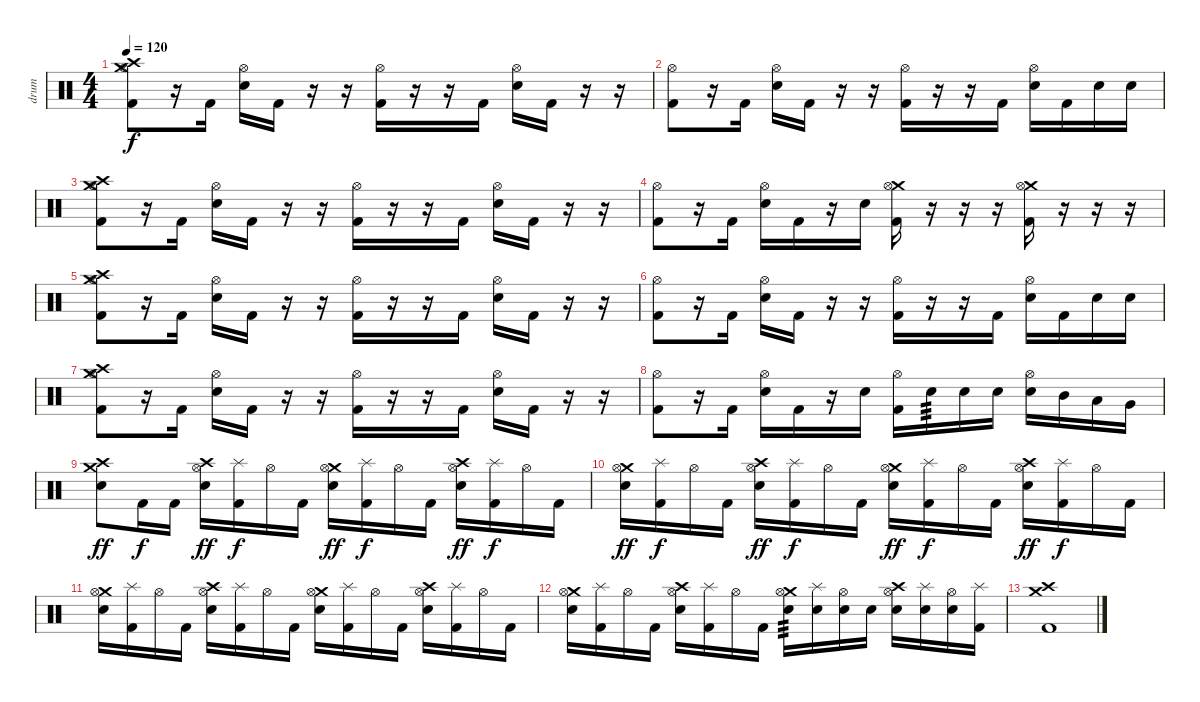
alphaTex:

\track ("drum" "drum") {instrument percussion}
\staff {score}
\articulation defaults
\ts (4 4)
\tempo 120
\clef neutral
\ks c
("Crash medium (hit)" "Hi-Hat (open)" "Crash high (hit)" "Kick (hit) 2").8{dy f} r.16 "Kick (hit) 2".16 ("Hi-Hat (open)" "Electric Snare (hit)").16 "Kick (hit) 2".16 r.16 r.16 ("Hi-Hat (open)" "Kick (hit) 2").16 r.16 r.16 "Kick (hit) 2".16 ("Hi-Hat (open)" "Electric Snare (hit)").16 "Kick (hit) 2".16 r.16 r.16 |
("Hi-Hat (open)" "Kick (hit) 2").8 r.16 "Kick (hit) 2".16 ("Hi-Hat (open)" "Electric Snare (hit)").16 "Kick (hit) 2".16 r.16 r.16 ("Hi-Hat (open)" "Kick (hit) 2").16 r.16 r.16 "Kick (hit) 2".16 ("Hi-Hat (open)" "Electric Snare (hit)").16 "Kick (hit) 2".16 "Electric Snare (hit)".16 "Electric Snare (hit)".16 |
("Crash medium (hit)" "Hi-Hat (open)" "Crash high (hit)" "Kick (hit) 2").8 r.16 "Kick (hit) 2".16 ("Hi-Hat (open)" "Electric Snare (hit)").16 "Kick (hit) 2".16 r.16 r.16 ("Hi-Hat (open)" "Kick (hit) 2").16 r.16 r.16 "Kick (hit) 2".16 ("Hi-Hat (open)" "Electric Snare (hit)").16 "Kick (hit) 2".16 r.16 r.16 |
("Hi-Hat (open)" "Kick (hit) 2").8 r.16 "Kick (hit) 2".16 ("Hi-Hat (open)" "Electric Snare (hit)").16 "Kick (hit) 2".16 r.16 "Electric Snare (hit)".16 ("Crash medium (hit)" "Hi-Hat (open)" "Kick (hit) 2").16 r.16 r.16 r.16 ("Crash medium (hit)" "Hi-Hat (open)" "Kick (hit) 2").16 r.16 r.16 r.16 |
("Crash medium (hit)" "Hi-Hat (open)" "Crash high (hit)" "Kick (hit) 2").8 r.16 "Kick (hit) 2".16 ("Hi-Hat (open)" "Electric Snare (hit)").16 "Kick (hit) 2".16 r.16 r.16 ("Hi-Hat (open)" "Kick (hit) 2").16 r.16 r.16 "Kick (hit) 2".16 ("Hi-Hat (open)" "Electric Snare (hit)").16 "Kick (hit) 2".16 r.16 r.16 |
("Hi-Hat (open)" "Kick (hit) 2").8 r.16 "Kick (hit) 2".16 ("Hi-Hat (open)" "Electric Snare (hit)").16 "Kick (hit) 2".16 r.16 r.16 ("Hi-Hat (open)" "Kick (hit) 2").16 r.16 r.16 "Kick (hit) 2".16 ("Hi-Hat (open)" "Electric Snare (hit)").16 "Kick (hit) 2".16 "Electric Snare (hit)".16 "Electric Snare (hit)".16 |
("Crash medium (hit)" "Hi-Hat (open)" "Crash high (hit)" "Kick (hit) 2").8 r.16 "Kick (hit) 2".16 ("Hi-Hat (open)" "Electric Snare (hit)").16 "Kick (hit) 2".16 r.16 r.16 ("Hi-Hat (open)" "Kick (hit) 2").16 r.16 r.16 "Kick (hit) 2".16 ("Hi-Hat (open)" "Electric Snare (hit)").16 "Kick (hit) 2".16 r.16 r.16 |
("Hi-Hat (open)" "Kick (hit) 2").8 r.16 "Kick (hit) 2".16 ("Hi-Hat (open)" "Electric Snare (hit)").16 "Kick (hit) 2".16 r.16 "Electric Snare (hit)".16 ("Hi-Hat (open)" "Kick (hit) 2").16 "Electric Snare (hit)".16{tp 3} "Electric Snare (hit)".16 "Electric Snare (hit)".16 ("Hi-Hat (open)" "Electric Snare (hit)").16 "Mid Tom (hit)".16 "Low Tom (hit)".16 "Very Low Tom (hit)".16 |
("Crash medium (hit)" "Crash high (hit)" "Electric Snare (hit)").8{dy ff} "Kick (hit) 2".16{dy f} "Kick (hit) 2".16 ("Crash high (hit)" "Hi-Hat (open)" "Electric Snare (hit)").16{dy ff} ("Splash (hit)" "Kick (hit) 2").16{dy f} "Hi-Hat (open)".16 "Kick (hit) 2".16 ("Crash medium (hit)" "Hi-Hat (open)" "Electric Snare (hit)").16{dy ff} ("Splash (hit)" "Kick (hit) 2").16{dy f} "Hi-Hat (open)".16 "Kick (hit) 2".16 ("Crash high (hit)" "Hi-Hat (open)" "Electric Snare (hit)").16{dy ff} ("Splash (hit)" "Kick (hit) 2").16{dy f} "Hi-Hat (open)".16 "Kick (hit) 2".16 |
("Crash medium (hit)" "Hi-Hat (open)" "Electric Snare (hit)").16{dy ff} ("Splash (hit)" "Kick (hit) 2").16{dy f} "Hi-Hat (open)".16 "Kick (hit) 2".16 ("Crash high (hit)" "Hi-Hat (open)" "Electric Snare (hit)").16{dy ff} ("Splash (hit)" "Kick (hit) 2").16{dy f} "Hi-Hat (open)".16 "Kick (hit) 2".16 ("Crash medium (hit)" "Hi-Hat (open)" "Electric Snare (hit)").16{dy ff} ("Splash (hit)" "Kick (hit) 2").16{dy f} "Hi-Hat (open)".16 "Kick (hit) 2".16 ("Crash high (hit)" "Hi-Hat (open)" "Electric Snare (hit)").16{dy ff} ("Splash (hit)" "Kick (hit) 2").16{dy f} "Hi-Hat (open)".16 "Kick (hit) 2".16 |
("Crash medium (hit)" "Hi-Hat (open)" "Electric Snare (hit)").16 ("Splash (hit)" "Kick (hit) 2").16 "Hi-Hat (open)".16 "Kick (hit) 2".16 ("Crash high (hit)" "Hi-Hat (open)" "Electric Snare (hit)").16 ("Splash (hit)" "Kick (hit) 2").16 "Hi-Hat (open)".16 "Kick (hit) 2".16 ("Crash medium (hit)" "Hi-Hat (open)" "Electric Snare (hit)").16 ("Splash (hit)" "Kick (hit) 2").16 "Hi-Hat (open)".16 "Kick (hit) 2".16 ("Crash high (hit)" "Hi-Hat (open)" "Electric Snare (hit)").16 ("Splash (hit)" "Kick (hit) 2").16 "Hi-Hat (open)".16 "Kick (hit) 2".16 |
("Crash medium (hit)" "Hi-Hat (open)" "Electric Snare (hit)").16 ("Splash (hit)" "Kick (hit) 2").16 "Hi-Hat (open)".16 "Kick (hit) 2".16 ("Crash high (hit)" "Hi-Hat (open)" "Electric Snare (hit)").16 ("Splash (hit)" "Kick (hit) 2").16 "Hi-Hat (open)".16 "Kick (hit) 2".16 ("Crash medium (hit)" "Hi-Hat (open)" "Electric Snare (hit)").16{tp 3} ("Splash (hit)" "Electric Snare (hit)").16 ("Hi-Hat (open)" "Electric Snare (hit)").16 "Electric Snare (hit)".16 ("Crash high (hit)" "Hi-Hat (open)" "Electric Snare (hit)").16 ("Splash (hit)" "Electric Snare (hit)").16 ("Hi-Hat (open)" "Electric Snare (hit)").16 ("Splash (hit)" "Kick (hit) 2").16 |
("Crash high (hit)" "Crash medium (hit)" "Kick (hit) 2").1
